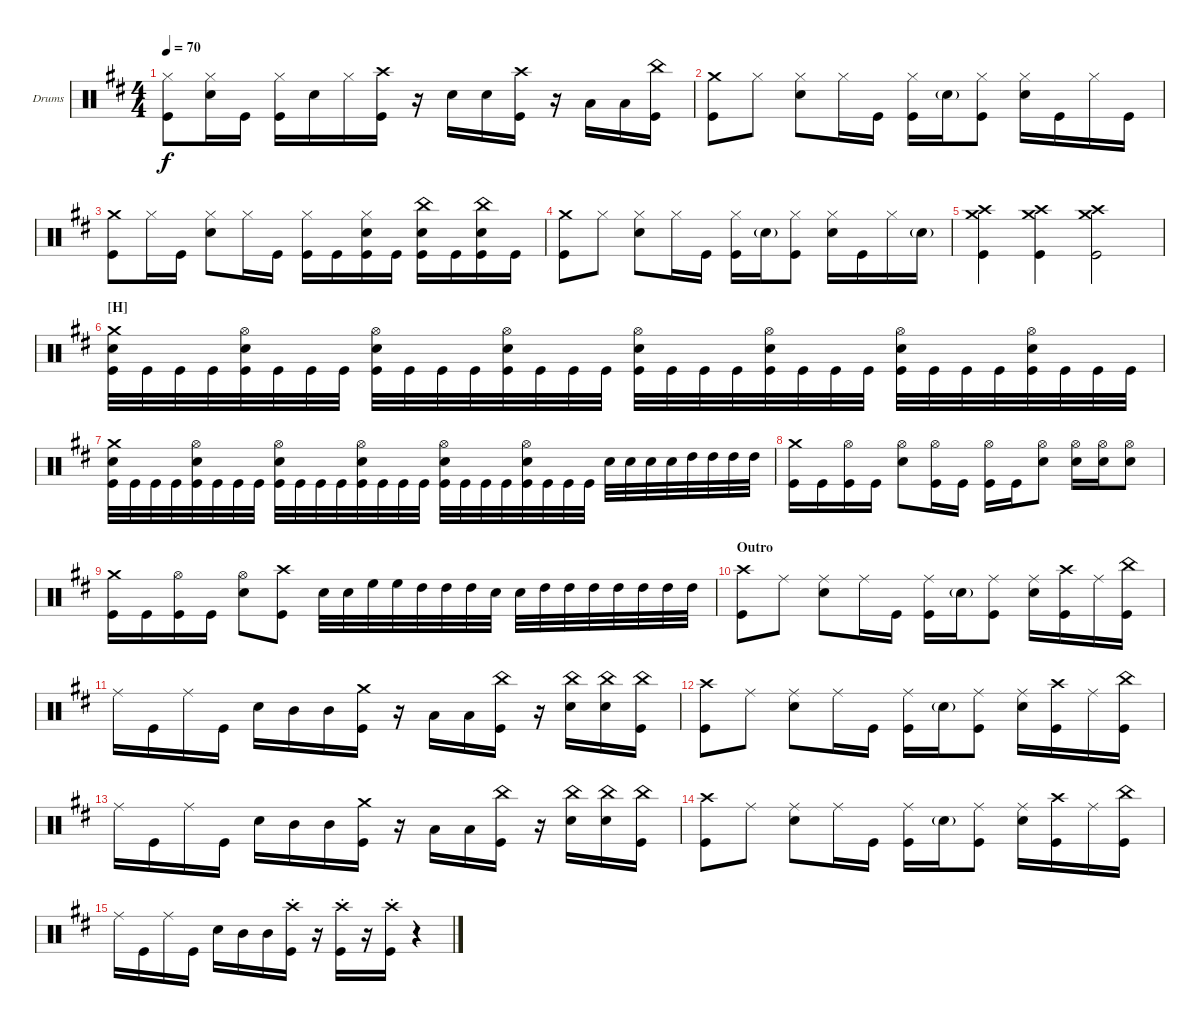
\bracketExtendMode groupsimilarinstruments
\firstSystemTrackNameOrientation horizontal
\otherSystemsTrackNameOrientation horizontal
\track ("Drums" "Drums") {instrument percussion}
\staff {score}
\articulation defaults
\ts (4 4)
\tempo 70
\clef neutral
\ks bminor
("Kick (hit)" "Hi-Hat (closed)").8{dy f} ("Snare (hit) 2" "Hi-Hat (closed)").16 "Kick (hit)".16 ("Kick (hit)" "Hi-Hat (closed)").16 "Snare (hit) 2".16 "Hi-Hat (closed)".16 ("Kick (hit)" "Crash high (hit)").16 r.16 "Snare (hit) 2".16 "Snare (hit) 2".16 ("Kick (hit)" "Crash high (hit)").16 r.16 "Low Tom (hit)".16 "Low Tom (hit)".16 ("Kick (hit)" "China (hit)").16 |
("Kick (hit)" "Crash medium (hit)").8 "Hi-Hat (closed)".8 ("Hi-Hat (closed)" "Snare (hit) 2").8 "Hi-Hat (closed)".16 "Kick (hit)".16 ("Hi-Hat (closed)" "Kick (hit)").16 "Snare (hit) 2"{g}.16 ("Hi-Hat (closed)" "Kick (hit)").8 ("Hi-Hat (closed)" "Snare (hit) 2").16 "Kick (hit)".16 "Hi-Hat (closed)".16 "Kick (hit)".16 |
("Kick (hit)" "Crash medium (hit)").8 "Hi-Hat (closed)".16 "Kick (hit)".16 ("Hi-Hat (closed)" "Snare (hit) 2").8 "Hi-Hat (closed)".16 "Kick (hit)".16 ("Hi-Hat (closed)" "Kick (hit)").16 "Kick (hit)".16 ("Hi-Hat (closed)" "Kick (hit)" "Snare (hit) 2").16 "Kick (hit)".16 ("China (hit)" "Snare (hit) 2" "Kick (hit)").16 "Kick (hit)".16 ("China (hit)" "Snare (hit) 2" "Kick (hit)").16 "Kick (hit)".16 |
("Kick (hit)" "Crash medium (hit)").8 "Hi-Hat (closed)".8 ("Hi-Hat (closed)" "Snare (hit) 2").8 "Hi-Hat (closed)".16 "Kick (hit)".16 ("Hi-Hat (closed)" "Kick (hit)").16 "Snare (hit) 2"{g}.16 ("Hi-Hat (closed)" "Kick (hit)").8 ("Hi-Hat (closed)" "Snare (hit) 2").16 "Kick (hit)".16 "Hi-Hat (closed)".16 "Snare (hit) 2"{g}.16 |
("Crash high (hit)" "Kick (hit)" "Crash medium (hit)").4 ("Crash high (hit)" "Kick (hit)" "Crash medium (hit)").4 ("Crash high (hit)" "Kick (hit)" "Crash medium (hit)").2 |
\section ("H" "")
("Kick (hit)" "Snare (hit) 2" "Crash medium (hit)").32 "Kick (hit)".32 "Kick (hit)".32 "Kick (hit)".32 ("Hi-Hat (open)" "Kick (hit)" "Snare (hit) 2").32 "Kick (hit)".32 "Kick (hit)".32 "Kick (hit)".32 ("Hi-Hat (open)" "Kick (hit)" "Snare (hit) 2").32 "Kick (hit)".32 "Kick (hit)".32 "Kick (hit)".32 ("Hi-Hat (open)" "Kick (hit)" "Snare (hit) 2").32 "Kick (hit)".32 "Kick (hit)".32 "Kick (hit)".32 ("Hi-Hat (open)" "Kick (hit)" "Snare (hit) 2").32 "Kick (hit)".32 "Kick (hit)".32 "Kick (hit)".32 ("Hi-Hat (open)" "Kick (hit)" "Snare (hit) 2").32 "Kick (hit)".32 "Kick (hit)".32 "Kick (hit)".32 ("Hi-Hat (open)" "Kick (hit)" "Snare (hit) 2").32 "Kick (hit)".32 "Kick (hit)".32 "Kick (hit)".32 ("Hi-Hat (open)" "Kick (hit)" "Snare (hit) 2").32 "Kick (hit)".32 "Kick (hit)".32 "Kick (hit)".32 |
("Kick (hit)" "Snare (hit) 2" "Crash medium (hit)").32 "Kick (hit)".32 "Kick (hit)".32 "Kick (hit)".32 ("Hi-Hat (open)" "Kick (hit)" "Snare (hit) 2").32 "Kick (hit)".32 "Kick (hit)".32 "Kick (hit)".32 ("Hi-Hat (open)" "Kick (hit)" "Snare (hit) 2").32 "Kick (hit)".32 "Kick (hit)".32 "Kick (hit)".32 ("Hi-Hat (open)" "Kick (hit)" "Snare (hit) 2").32 "Kick (hit)".32 "Kick (hit)".32 "Kick (hit)".32 ("Hi-Hat (open)" "Kick (hit)" "Snare (hit) 2").32 "Kick (hit)".32 "Kick (hit)".32 "Kick (hit)".32 ("Hi-Hat (open)" "Kick (hit)" "Snare (hit) 2").32 "Kick (hit)".32 "Kick (hit)".32 "Kick (hit)".32 "Snare (hit) 2".32 "Snare (hit) 2".32 "Snare (hit) 2".32 "Snare (hit) 2".32 "High Tom (hit)".32 "High Tom (hit)".32 "High Tom (hit)".32 "High Tom (hit)".32 |
("Kick (hit)" "Crash medium (hit)").16 "Kick (hit)".16 ("Kick (hit)" "Hi-Hat (open)").16 "Kick (hit)".16 ("Snare (hit) 2" "Hi-Hat (open)").8 ("Kick (hit)" "Hi-Hat (open)").16 "Kick (hit)".16 ("Kick (hit)" "Hi-Hat (open)").16 "Kick (hit)".16 ("Snare (hit) 2" "Hi-Hat (open)").8 ("Snare (hit) 2" "Hi-Hat (open)").16 ("Snare (hit) 2" "Hi-Hat (open)").16 ("Snare (hit) 2" "Hi-Hat (open)").8 |
("Kick (hit)" "Crash medium (hit)").16 "Kick (hit)".16 ("Kick (hit)" "Hi-Hat (open)").16 "Kick (hit)".16 ("Snare (hit) 2" "Hi-Hat (open)").8 ("Kick (hit)" "Crash high (hit)").8 "Snare (hit) 2".32 "Snare (hit) 2".32 "High Floor Tom (hit)".32 "High Floor Tom (hit)".32 "High Tom (hit)".32 "High Tom (hit)".32 "High Tom (hit)".32 "Snare (hit) 2".32 "Snare (hit) 2".32 "High Tom (hit)".32 "High Tom (hit)".32 "High Tom (hit)".32 "High Tom (hit)".32 "High Tom (hit)".32 "High Tom (hit)".32 "High Tom (hit)".32 |
\section ("" "Outro")
("Kick (hit)" "Crash high (hit)").8 "Ride (middle)".8 ("Ride (middle)" "Snare (hit) 2").8 "Ride (middle)".16 "Kick (hit)".16 ("Ride (middle)" "Kick (hit)").16 "Snare (hit) 2"{g}.16 ("Ride (middle)" "Kick (hit)").8 ("Ride (middle)" "Snare (hit) 2").16 ("Kick (hit)" "Crash high (hit)").16 "Ride (middle)".16 ("China (hit)" "Kick (hit)").16 |
"Ride (middle)".16 "Kick (hit)".16 "Ride (middle)".16 "Kick (hit)".16 "Snare (hit) 2".16 "Mid Tom (hit)".16 "Mid Tom (hit)".16 ("Kick (hit)" "Crash medium (hit)").16 r.16 "Low Tom (hit)".16 "Low Tom (hit)".16 ("Kick (hit)" "China (hit)").16 r.16 ("Snare (hit) 2" "China (hit)").16 ("Snare (hit) 2" "China (hit)").16 ("Kick (hit)" "China (hit)").16 |
("Kick (hit)" "Crash high (hit)").8 "Ride (middle)".8 ("Ride (middle)" "Snare (hit) 2").8 "Ride (middle)".16 "Kick (hit)".16 ("Ride (middle)" "Kick (hit)").16 "Snare (hit) 2"{g}.16 ("Ride (middle)" "Kick (hit)").8 ("Ride (middle)" "Snare (hit) 2").16 ("Kick (hit)" "Crash high (hit)").16 "Ride (middle)".16 ("China (hit)" "Kick (hit)").16 |
"Ride (middle)".16 "Kick (hit)".16 "Ride (middle)".16 "Kick (hit)".16 "Snare (hit) 2".16 "Mid Tom (hit)".16 "Mid Tom (hit)".16 ("Kick (hit)" "Crash medium (hit)").16 r.16 "Low Tom (hit)".16 "Low Tom (hit)".16 ("Kick (hit)" "China (hit)").16 r.16 ("Snare (hit) 2" "China (hit)").16 ("Snare (hit) 2" "China (hit)").16 ("Kick (hit)" "China (hit)").16 |
("Kick (hit)" "Crash high (hit)").8 "Ride (middle)".8 ("Ride (middle)" "Snare (hit) 2").8 "Ride (middle)".16 "Kick (hit)".16 ("Ride (middle)" "Kick (hit)").16 "Snare (hit) 2"{g}.16 ("Ride (middle)" "Kick (hit)").8 ("Ride (middle)" "Snare (hit) 2").16 ("Kick (hit)" "Crash high (hit)").16 "Ride (middle)".16 ("China (hit)" "Kick (hit)").16 |
"Ride (middle)".16 "Kick (hit)".16 "Ride (middle)".16 "Kick (hit)".16 "Snare (hit) 2".16 "Mid Tom (hit)".16 "Mid Tom (hit)".16 ("Kick (hit)"{st} "Crash high (hit)"{st}).16 r.16 ("Kick (hit)"{st} "Crash high (hit)"{st}).16 r.16 ("Kick (hit)"{st} "Crash high (hit)"{st}).16 r.4
